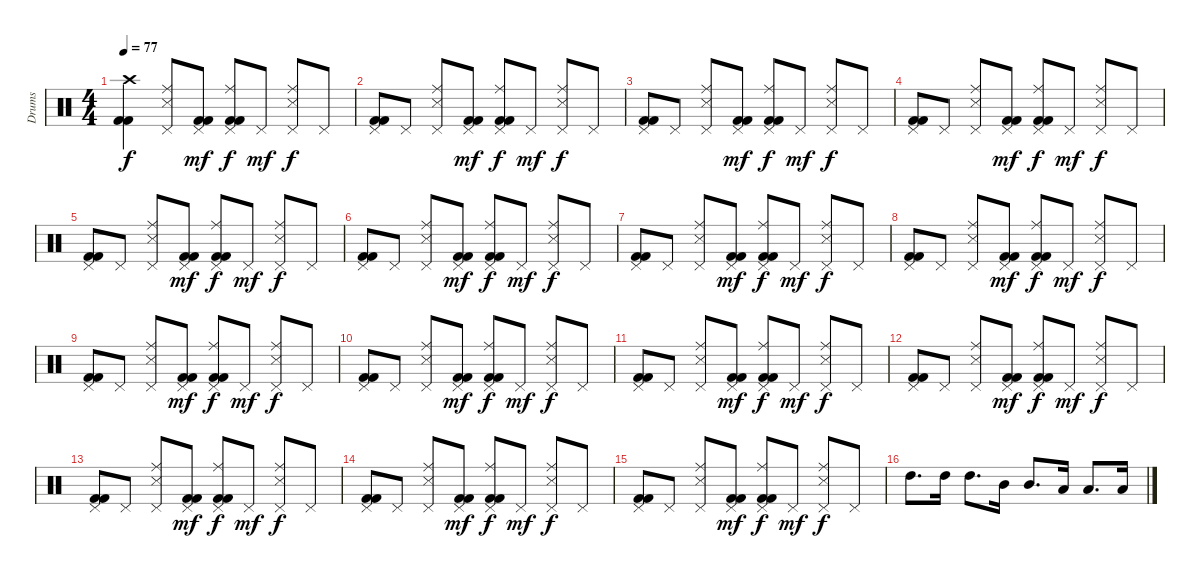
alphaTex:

\track ("Drums" "Drums") {instrument percussion}
\staff {score}
\articulation defaults
\ts (4 4)
\tempo 77
\clef neutral
\ks c
("Crash high (hit)" "Kick (hit) 2" "Kick (hit) 2").4{dy f} ("Pedal Hi-Hat (hit)" "Ride (middle)" "Snare (side stick) 3").8 ("Pedal Hi-Hat (hit)" "Kick (hit) 2" "Kick (hit) 2").8{dy mf} ("Pedal Hi-Hat (hit)" "Ride (middle)" "Kick (hit) 2" "Kick (hit) 2").8{dy f} "Pedal Hi-Hat (hit)".8{dy mf} ("Pedal Hi-Hat (hit)" "Ride (middle)" "Snare (side stick) 3").8{dy f} "Pedal Hi-Hat (hit)".8 |
("Pedal Hi-Hat (hit)" "Kick (hit) 2" "Kick (hit) 2").8 "Pedal Hi-Hat (hit)".8 ("Pedal Hi-Hat (hit)" "Ride (middle)" "Snare (side stick) 3").8 ("Pedal Hi-Hat (hit)" "Kick (hit) 2" "Kick (hit) 2").8{dy mf} ("Pedal Hi-Hat (hit)" "Ride (middle)" "Kick (hit) 2" "Kick (hit) 2").8{dy f} "Pedal Hi-Hat (hit)".8{dy mf} ("Pedal Hi-Hat (hit)" "Ride (middle)" "Snare (side stick) 3").8{dy f} "Pedal Hi-Hat (hit)".8 |
("Pedal Hi-Hat (hit)" "Kick (hit) 2" "Kick (hit) 2").8 "Pedal Hi-Hat (hit)".8 ("Pedal Hi-Hat (hit)" "Ride (middle)" "Snare (side stick) 3").8 ("Pedal Hi-Hat (hit)" "Kick (hit) 2" "Kick (hit) 2").8{dy mf} ("Pedal Hi-Hat (hit)" "Ride (middle)" "Kick (hit) 2" "Kick (hit) 2").8{dy f} "Pedal Hi-Hat (hit)".8{dy mf} ("Pedal Hi-Hat (hit)" "Ride (middle)" "Snare (side stick) 3").8{dy f} "Pedal Hi-Hat (hit)".8 |
("Pedal Hi-Hat (hit)" "Kick (hit) 2" "Kick (hit) 2").8 "Pedal Hi-Hat (hit)".8 ("Pedal Hi-Hat (hit)" "Ride (middle)" "Snare (side stick) 3").8 ("Pedal Hi-Hat (hit)" "Kick (hit) 2" "Kick (hit) 2").8{dy mf} ("Pedal Hi-Hat (hit)" "Ride (middle)" "Kick (hit) 2" "Kick (hit) 2").8{dy f} "Pedal Hi-Hat (hit)".8{dy mf} ("Pedal Hi-Hat (hit)" "Ride (middle)" "Snare (side stick) 3").8{dy f} "Pedal Hi-Hat (hit)".8 |
("Pedal Hi-Hat (hit)" "Kick (hit) 2" "Kick (hit) 2").8 "Pedal Hi-Hat (hit)".8 ("Pedal Hi-Hat (hit)" "Ride (middle)" "Snare (side stick) 3").8 ("Pedal Hi-Hat (hit)" "Kick (hit) 2" "Kick (hit) 2").8{dy mf} ("Pedal Hi-Hat (hit)" "Ride (middle)" "Kick (hit) 2" "Kick (hit) 2").8{dy f} "Pedal Hi-Hat (hit)".8{dy mf} ("Pedal Hi-Hat (hit)" "Ride (middle)" "Snare (side stick) 3").8{dy f} "Pedal Hi-Hat (hit)".8 |
("Pedal Hi-Hat (hit)" "Kick (hit) 2" "Kick (hit) 2").8 "Pedal Hi-Hat (hit)".8 ("Pedal Hi-Hat (hit)" "Ride (middle)" "Snare (side stick) 3").8 ("Pedal Hi-Hat (hit)" "Kick (hit) 2" "Kick (hit) 2").8{dy mf} ("Pedal Hi-Hat (hit)" "Ride (middle)" "Kick (hit) 2" "Kick (hit) 2").8{dy f} "Pedal Hi-Hat (hit)".8{dy mf} ("Pedal Hi-Hat (hit)" "Ride (middle)" "Snare (side stick) 3").8{dy f} "Pedal Hi-Hat (hit)".8 |
("Pedal Hi-Hat (hit)" "Kick (hit) 2" "Kick (hit) 2").8 "Pedal Hi-Hat (hit)".8 ("Pedal Hi-Hat (hit)" "Ride (middle)" "Snare (side stick) 3").8 ("Pedal Hi-Hat (hit)" "Kick (hit) 2" "Kick (hit) 2").8{dy mf} ("Pedal Hi-Hat (hit)" "Ride (middle)" "Kick (hit) 2" "Kick (hit) 2").8{dy f} "Pedal Hi-Hat (hit)".8{dy mf} ("Pedal Hi-Hat (hit)" "Ride (middle)" "Snare (side stick) 3").8{dy f} "Pedal Hi-Hat (hit)".8 |
("Pedal Hi-Hat (hit)" "Kick (hit) 2" "Kick (hit) 2").8 "Pedal Hi-Hat (hit)".8 ("Pedal Hi-Hat (hit)" "Ride (middle)" "Snare (side stick) 3").8 ("Pedal Hi-Hat (hit)" "Kick (hit) 2" "Kick (hit) 2").8{dy mf} ("Pedal Hi-Hat (hit)" "Ride (middle)" "Kick (hit) 2" "Kick (hit) 2").8{dy f} "Pedal Hi-Hat (hit)".8{dy mf} ("Pedal Hi-Hat (hit)" "Ride (middle)" "Snare (side stick) 3").8{dy f} "Pedal Hi-Hat (hit)".8 |
("Pedal Hi-Hat (hit)" "Kick (hit) 2" "Kick (hit) 2").8 "Pedal Hi-Hat (hit)".8 ("Pedal Hi-Hat (hit)" "Ride (middle)" "Snare (side stick) 3").8 ("Pedal Hi-Hat (hit)" "Kick (hit) 2" "Kick (hit) 2").8{dy mf} ("Pedal Hi-Hat (hit)" "Ride (middle)" "Kick (hit) 2" "Kick (hit) 2").8{dy f} "Pedal Hi-Hat (hit)".8{dy mf} ("Pedal Hi-Hat (hit)" "Ride (middle)" "Snare (side stick) 3").8{dy f} "Pedal Hi-Hat (hit)".8 |
("Pedal Hi-Hat (hit)" "Kick (hit) 2" "Kick (hit) 2").8 "Pedal Hi-Hat (hit)".8 ("Pedal Hi-Hat (hit)" "Ride (middle)" "Snare (side stick) 3").8 ("Pedal Hi-Hat (hit)" "Kick (hit) 2" "Kick (hit) 2").8{dy mf} ("Pedal Hi-Hat (hit)" "Ride (middle)" "Kick (hit) 2" "Kick (hit) 2").8{dy f} "Pedal Hi-Hat (hit)".8{dy mf} ("Pedal Hi-Hat (hit)" "Ride (middle)" "Snare (side stick) 3").8{dy f} "Pedal Hi-Hat (hit)".8 |
("Pedal Hi-Hat (hit)" "Kick (hit) 2" "Kick (hit) 2").8 "Pedal Hi-Hat (hit)".8 ("Pedal Hi-Hat (hit)" "Ride (middle)" "Snare (side stick) 3").8 ("Pedal Hi-Hat (hit)" "Kick (hit) 2" "Kick (hit) 2").8{dy mf} ("Pedal Hi-Hat (hit)" "Ride (middle)" "Kick (hit) 2" "Kick (hit) 2").8{dy f} "Pedal Hi-Hat (hit)".8{dy mf} ("Pedal Hi-Hat (hit)" "Ride (middle)" "Snare (side stick) 3").8{dy f} "Pedal Hi-Hat (hit)".8 |
("Pedal Hi-Hat (hit)" "Kick (hit) 2" "Kick (hit) 2").8 "Pedal Hi-Hat (hit)".8 ("Pedal Hi-Hat (hit)" "Ride (middle)" "Snare (side stick) 3").8 ("Pedal Hi-Hat (hit)" "Kick (hit) 2" "Kick (hit) 2").8{dy mf} ("Pedal Hi-Hat (hit)" "Ride (middle)" "Kick (hit) 2" "Kick (hit) 2").8{dy f} "Pedal Hi-Hat (hit)".8{dy mf} ("Pedal Hi-Hat (hit)" "Ride (middle)" "Snare (side stick) 3").8{dy f} "Pedal Hi-Hat (hit)".8 |
("Pedal Hi-Hat (hit)" "Kick (hit) 2" "Kick (hit) 2").8 "Pedal Hi-Hat (hit)".8 ("Pedal Hi-Hat (hit)" "Ride (middle)" "Snare (side stick) 3").8 ("Pedal Hi-Hat (hit)" "Kick (hit) 2" "Kick (hit) 2").8{dy mf} ("Pedal Hi-Hat (hit)" "Ride (middle)" "Kick (hit) 2" "Kick (hit) 2").8{dy f} "Pedal Hi-Hat (hit)".8{dy mf} ("Pedal Hi-Hat (hit)" "Ride (middle)" "Snare (side stick) 3").8{dy f} "Pedal Hi-Hat (hit)".8 |
("Pedal Hi-Hat (hit)" "Kick (hit) 2" "Kick (hit) 2").8 "Pedal Hi-Hat (hit)".8 ("Pedal Hi-Hat (hit)" "Ride (middle)" "Snare (side stick) 3").8 ("Pedal Hi-Hat (hit)" "Kick (hit) 2" "Kick (hit) 2").8{dy mf} ("Pedal Hi-Hat (hit)" "Ride (middle)" "Kick (hit) 2" "Kick (hit) 2").8{dy f} "Pedal Hi-Hat (hit)".8{dy mf} ("Pedal Hi-Hat (hit)" "Ride (middle)" "Snare (side stick) 3").8{dy f} "Pedal Hi-Hat (hit)".8 |
("Pedal Hi-Hat (hit)" "Kick (hit) 2" "Kick (hit) 2").8 "Pedal Hi-Hat (hit)".8 ("Pedal Hi-Hat (hit)" "Ride (middle)" "Snare (side stick) 3").8 ("Pedal Hi-Hat (hit)" "Kick (hit) 2" "Kick (hit) 2").8{dy mf} ("Pedal Hi-Hat (hit)" "Ride (middle)" "Kick (hit) 2" "Kick (hit) 2").8{dy f} "Pedal Hi-Hat (hit)".8{dy mf} ("Pedal Hi-Hat (hit)" "Ride (middle)" "Snare (side stick) 3").8{dy f} "Pedal Hi-Hat (hit)".8 |
"High Tom (hit)".8{d} "High Tom (hit)".16 "High Tom (hit)".8{d} "Mid Tom (hit)".16 "Mid Tom (hit)".8{d} "Low Tom (hit)".16 "Low Tom (hit)".8{d} "Low Floor Tom (hit)".16
